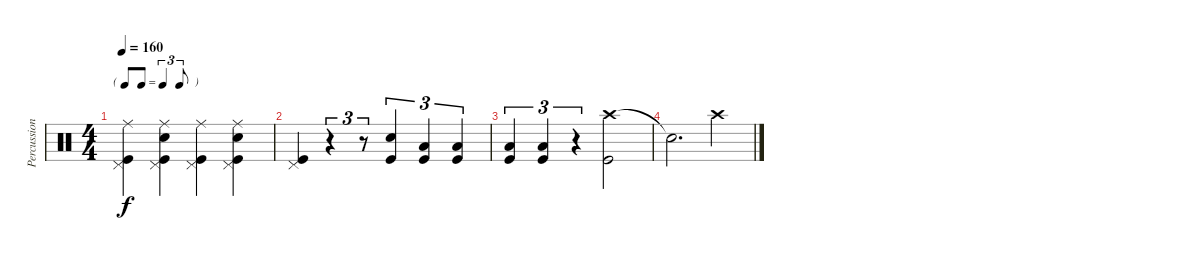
\track ("Percussion" "Percussion") {instrument percussion}
\staff {score}
\articulation defaults
\ts (4 4)
\tf triplet8th
\tempo 160
\clef neutral
\ks c
("Ride (middle)" "Pedal Hi-Hat (hit)" "Kick (hit)").4{dy f} ("Ride (middle)" "Pedal Hi-Hat (hit)" "Kick (hit)" "Snare (hit) 2").4 ("Ride (middle)" "Pedal Hi-Hat (hit)" "Kick (hit)").4 ("Ride (middle)" "Pedal Hi-Hat (hit)" "Kick (hit)" "Snare (hit) 2").4 |
("Pedal Hi-Hat (hit)" "Kick (hit)").4 r.4{tu (3 2)} r.8{tu (3 2)} ("Snare (hit) 2" "Kick (hit)").4{tu (3 2)} ("Low Floor Tom (hit)" "Kick (hit)").4{tu (3 2)} ("Low Floor Tom (hit)" "Kick (hit)").4{tu (3 2)} |
("Low Floor Tom (hit)" "Kick (hit)").4{tu (3 2)} ("Low Floor Tom (hit)" "Kick (hit)").4{tu (3 2)} r.4{tu (3 2)} ("Crash high (hit)" "Kick (hit)").2 |
"Snare (hit)"{t}.2{d} "Crash high (hit)".4
